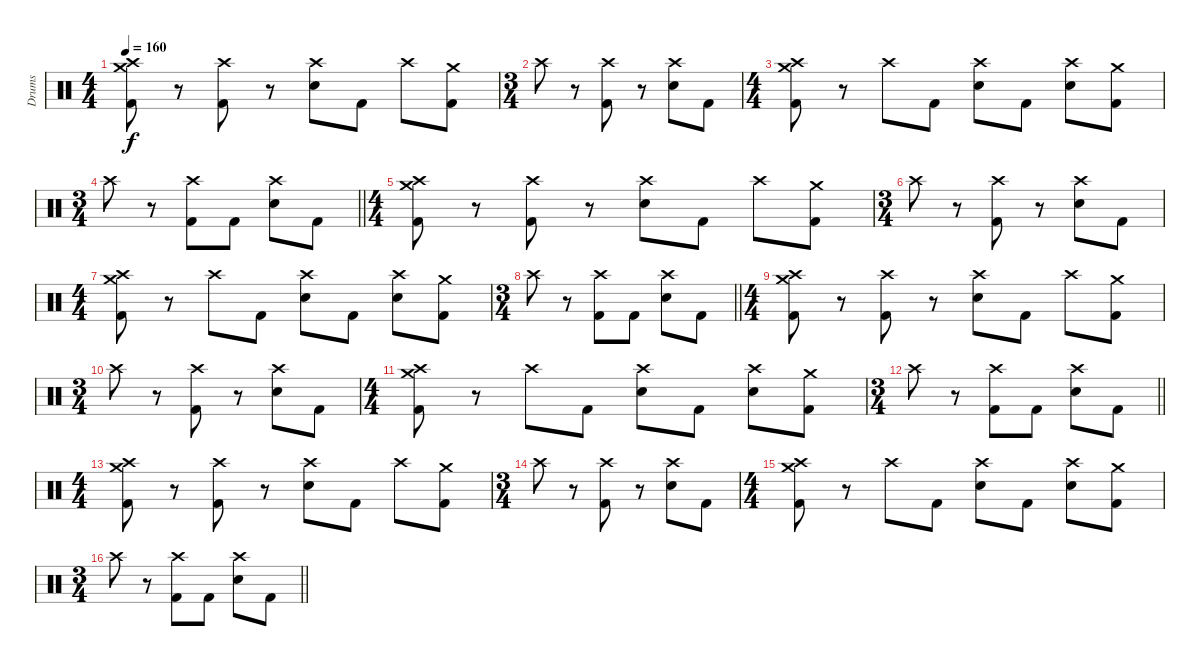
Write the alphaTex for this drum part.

\track ("Drums" "Drums") {instrument percussion}
\staff {score}
\articulation defaults
\ts (4 4)
\tempo 160
\clef neutral
\ks c
("Crash high (hit)" "Crash medium (hit)" "Kick (hit) 2").8{dy f} r.8 ("Crash high (hit)" "Kick (hit) 2").8 r.8 ("Crash high (hit)" "Electric Snare (hit)").8 "Kick (hit) 2".8 "Crash high (hit)".8 ("Crash medium (hit)" "Kick (hit) 2").8 |
\ts (3 4)
"Crash high (hit)".8 r.8 ("Crash high (hit)" "Kick (hit) 2").8 r.8 ("Crash high (hit)" "Electric Snare (hit)").8 "Kick (hit) 2".8 |
\ts (4 4)
("Crash high (hit)" "Crash medium (hit)" "Kick (hit) 2").8 r.8 "Crash high (hit)".8 "Kick (hit) 2".8 ("Crash high (hit)" "Electric Snare (hit)").8 "Kick (hit) 2".8 ("Crash high (hit)" "Electric Snare (hit)").8 ("Crash medium (hit)" "Kick (hit) 2").8 |
\ts (3 4)
\barLineRight lightlight "Crash high (hit)".8
r.8 ("Crash high (hit)" "Kick (hit) 2").8 "Kick (hit) 2".8 ("Crash high (hit)" "Electric Snare (hit)").8 "Kick (hit) 2".8 |
\ts (4 4)
("Crash high (hit)" "Crash medium (hit)" "Kick (hit) 2").8 r.8 ("Crash high (hit)" "Kick (hit) 2").8 r.8 ("Crash high (hit)" "Electric Snare (hit)").8 "Kick (hit) 2".8 "Crash high (hit)".8 ("Crash medium (hit)" "Kick (hit) 2").8 |
\ts (3 4)
"Crash high (hit)".8 r.8 ("Crash high (hit)" "Kick (hit) 2").8 r.8 ("Crash high (hit)" "Electric Snare (hit)").8 "Kick (hit) 2".8 |
\ts (4 4)
("Crash high (hit)" "Crash medium (hit)" "Kick (hit) 2").8 r.8 "Crash high (hit)".8 "Kick (hit) 2".8 ("Crash high (hit)" "Electric Snare (hit)").8 "Kick (hit) 2".8 ("Crash high (hit)" "Electric Snare (hit)").8 ("Crash medium (hit)" "Kick (hit) 2").8 |
\ts (3 4)
\barLineRight lightlight "Crash high (hit)".8
r.8 ("Crash high (hit)" "Kick (hit) 2").8 "Kick (hit) 2".8 ("Crash high (hit)" "Electric Snare (hit)").8 "Kick (hit) 2".8 |
\ts (4 4)
("Crash high (hit)" "Crash medium (hit)" "Kick (hit) 2").8 r.8 ("Crash high (hit)" "Kick (hit) 2").8 r.8 ("Crash high (hit)" "Electric Snare (hit)").8 "Kick (hit) 2".8 "Crash high (hit)".8 ("Crash medium (hit)" "Kick (hit) 2").8 |
\ts (3 4)
"Crash high (hit)".8 r.8 ("Crash high (hit)" "Kick (hit) 2").8 r.8 ("Crash high (hit)" "Electric Snare (hit)").8 "Kick (hit) 2".8 |
\ts (4 4)
("Crash high (hit)" "Crash medium (hit)" "Kick (hit) 2").8 r.8 "Crash high (hit)".8 "Kick (hit) 2".8 ("Crash high (hit)" "Electric Snare (hit)").8 "Kick (hit) 2".8 ("Crash high (hit)" "Electric Snare (hit)").8 ("Crash medium (hit)" "Kick (hit) 2").8 |
\ts (3 4)
\barLineRight lightlight "Crash high (hit)".8
r.8 ("Crash high (hit)" "Kick (hit) 2").8 "Kick (hit) 2".8 ("Crash high (hit)" "Electric Snare (hit)").8 "Kick (hit) 2".8 |
\ts (4 4)
("Crash high (hit)" "Crash medium (hit)" "Kick (hit) 2").8 r.8 ("Crash high (hit)" "Kick (hit) 2").8 r.8 ("Crash high (hit)" "Electric Snare (hit)").8 "Kick (hit) 2".8 "Crash high (hit)".8 ("Crash medium (hit)" "Kick (hit) 2").8 |
\ts (3 4)
"Crash high (hit)".8 r.8 ("Crash high (hit)" "Kick (hit) 2").8 r.8 ("Crash high (hit)" "Electric Snare (hit)").8 "Kick (hit) 2".8 |
\ts (4 4)
("Crash high (hit)" "Crash medium (hit)" "Kick (hit) 2").8 r.8 "Crash high (hit)".8 "Kick (hit) 2".8 ("Crash high (hit)" "Electric Snare (hit)").8 "Kick (hit) 2".8 ("Crash high (hit)" "Electric Snare (hit)").8 ("Crash medium (hit)" "Kick (hit) 2").8 |
\ts (3 4)
\barLineRight lightlight "Crash high (hit)".8
r.8 ("Crash high (hit)" "Kick (hit) 2").8 "Kick (hit) 2".8 ("Crash high (hit)" "Electric Snare (hit)").8 "Kick (hit) 2".8
